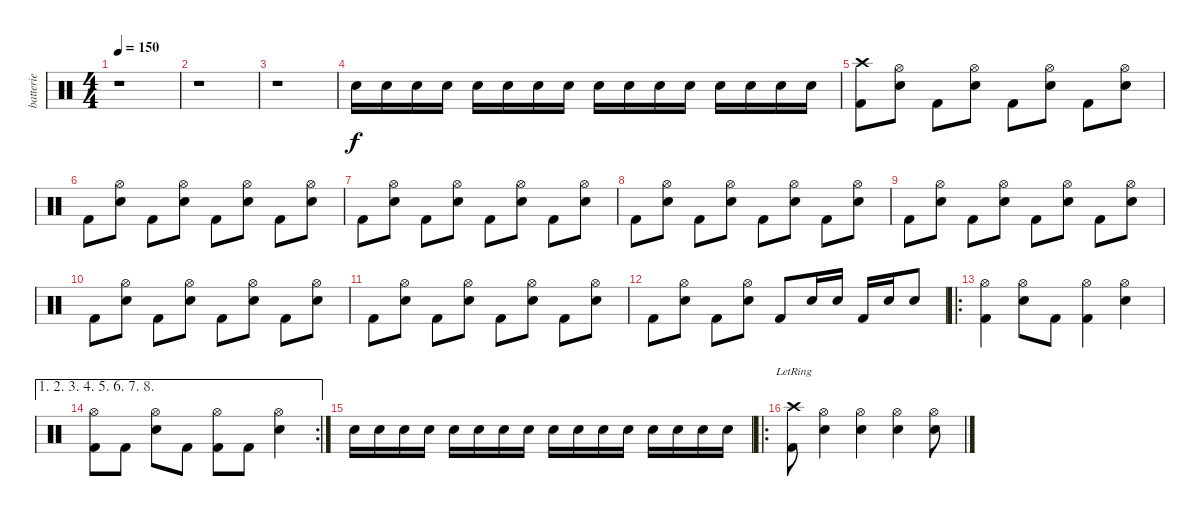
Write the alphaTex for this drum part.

\track ("batterie" "batterie") {instrument percussion}
\staff {score}
\articulation defaults
\ts (4 4)
\tempo 150
\clef neutral
\ks c
r.1{dy f} |
r.1 |
r.1{volume 4} |
"Electric Snare (hit)".16{volume 13} "Electric Snare (hit)".16 "Electric Snare (hit)".16 "Electric Snare (hit)".16 "Electric Snare (hit)".16 "Electric Snare (hit)".16 "Electric Snare (hit)".16 "Electric Snare (hit)".16 "Electric Snare (hit)".16 "Electric Snare (hit)".16 "Electric Snare (hit)".16 "Electric Snare (hit)".16 "Electric Snare (hit)".16 "Electric Snare (hit)".16 "Electric Snare (hit)".16 "Electric Snare (hit)".16 |
("Crash high (hit)" "Kick (hit) 2").8 ("Hi-Hat (open)" "Electric Snare (hit)").8 "Kick (hit) 2".8 ("Hi-Hat (open)" "Electric Snare (hit)").8 "Kick (hit) 2".8 ("Hi-Hat (open)" "Electric Snare (hit)").8 "Kick (hit) 2".8 ("Hi-Hat (open)" "Electric Snare (hit)").8 |
"Kick (hit) 2".8 ("Hi-Hat (open)" "Electric Snare (hit)").8 "Kick (hit) 2".8 ("Hi-Hat (open)" "Electric Snare (hit)").8 "Kick (hit) 2".8 ("Hi-Hat (open)" "Electric Snare (hit)").8 "Kick (hit) 2".8 ("Hi-Hat (open)" "Electric Snare (hit)").8 |
"Kick (hit) 2".8 ("Hi-Hat (open)" "Electric Snare (hit)").8 "Kick (hit) 2".8 ("Hi-Hat (open)" "Electric Snare (hit)").8 "Kick (hit) 2".8 ("Hi-Hat (open)" "Electric Snare (hit)").8 "Kick (hit) 2".8 ("Hi-Hat (open)" "Electric Snare (hit)").8 |
"Kick (hit) 2".8 ("Hi-Hat (open)" "Electric Snare (hit)").8 "Kick (hit) 2".8 ("Hi-Hat (open)" "Electric Snare (hit)").8 "Kick (hit) 2".8 ("Hi-Hat (open)" "Electric Snare (hit)").8 "Kick (hit) 2".8 ("Hi-Hat (open)" "Electric Snare (hit)").8 |
"Kick (hit) 2".8 ("Hi-Hat (open)" "Electric Snare (hit)").8 "Kick (hit) 2".8 ("Hi-Hat (open)" "Electric Snare (hit)").8 "Kick (hit) 2".8 ("Hi-Hat (open)" "Electric Snare (hit)").8 "Kick (hit) 2".8 ("Hi-Hat (open)" "Electric Snare (hit)").8 |
"Kick (hit) 2".8 ("Hi-Hat (open)" "Electric Snare (hit)").8 "Kick (hit) 2".8 ("Hi-Hat (open)" "Electric Snare (hit)").8 "Kick (hit) 2".8 ("Hi-Hat (open)" "Electric Snare (hit)").8 "Kick (hit) 2".8 ("Hi-Hat (open)" "Electric Snare (hit)").8 |
"Kick (hit) 2".8 ("Hi-Hat (open)" "Electric Snare (hit)").8 "Kick (hit) 2".8 ("Hi-Hat (open)" "Electric Snare (hit)").8 "Kick (hit) 2".8 ("Hi-Hat (open)" "Electric Snare (hit)").8 "Kick (hit) 2".8 ("Hi-Hat (open)" "Electric Snare (hit)").8 |
"Kick (hit) 2".8 ("Hi-Hat (open)" "Electric Snare (hit)").8 "Kick (hit) 2".8 ("Hi-Hat (open)" "Electric Snare (hit)").8 "Kick (hit) 2".8 "Electric Snare (hit)".16 "Electric Snare (hit)".16 "Kick (hit) 2".16 "Electric Snare (hit)".16 "Electric Snare (hit)".8 |
\ro
("Hi-Hat (open)" "Kick (hit) 2").4 ("Hi-Hat (open)" "Electric Snare (hit)").8 "Kick (hit) 2".8 ("Hi-Hat (open)" "Kick (hit) 2").4 ("Hi-Hat (open)" "Electric Snare (hit)").4 |
\ae (1 2 3 4 5 6 7 8)
\rc 2
("Hi-Hat (open)" "Kick (hit) 2").8 "Kick (hit) 2".8 ("Hi-Hat (open)" "Electric Snare (hit)").8 "Kick (hit) 2".8 ("Hi-Hat (open)" "Kick (hit) 2").8 "Kick (hit) 2".8 ("Hi-Hat (open)" "Electric Snare (hit)").4 |
"Electric Snare (hit)".16{volume 4} "Electric Snare (hit)".16{volume 12} "Electric Snare (hit)".16 "Electric Snare (hit)".16 "Electric Snare (hit)".16 "Electric Snare (hit)".16 "Electric Snare (hit)".16 "Electric Snare (hit)".16 "Electric Snare (hit)".16 "Electric Snare (hit)".16 "Electric Snare (hit)".16 "Electric Snare (hit)".16 "Electric Snare (hit)".16 "Electric Snare (hit)".16 "Electric Snare (hit)".16 "Electric Snare (hit)".16 |
\ro
("Crash high (hit)"{lr} "Kick (hit) 2").8 ("Hi-Hat (open)" "Electric Snare (hit)").4 ("Hi-Hat (open)" "Electric Snare (hit)").4 ("Hi-Hat (open)" "Electric Snare (hit)").4 ("Hi-Hat (open)" "Electric Snare (hit)").8
